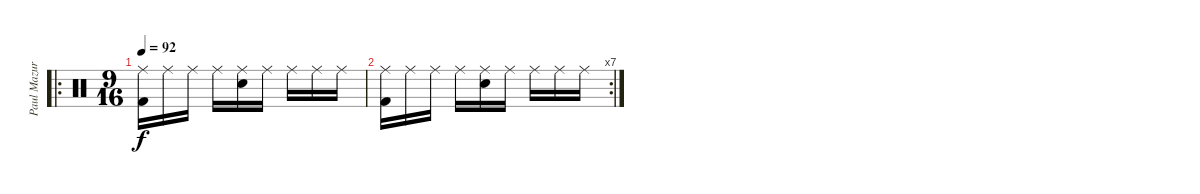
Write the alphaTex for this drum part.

\track ("Paul Mazurkiewicz" "Paul Mazur") {instrument percussion}
\staff {score}
\articulation defaults
\ro
\ts (9 16)
\tempo 92
\clef neutral
\ks c
("Ride (middle)" "Kick (hit) 2").16{dy f} "Ride (middle)".16 "Ride (middle)".16 "Ride (middle)".16 ("Ride (middle)" "Electric Snare (hit)").16 "Ride (middle)".16 "Ride (middle)".16 "Ride (middle)".16 "Ride (middle)".16 |
\rc 7
("Ride (middle)" "Kick (hit) 2").16 "Ride (middle)".16 "Ride (middle)".16 "Ride (middle)".16 ("Ride (middle)" "Electric Snare (hit)").16 "Ride (middle)".16 "Ride (middle)".16 "Ride (middle)".16 "Ride (middle)".16
